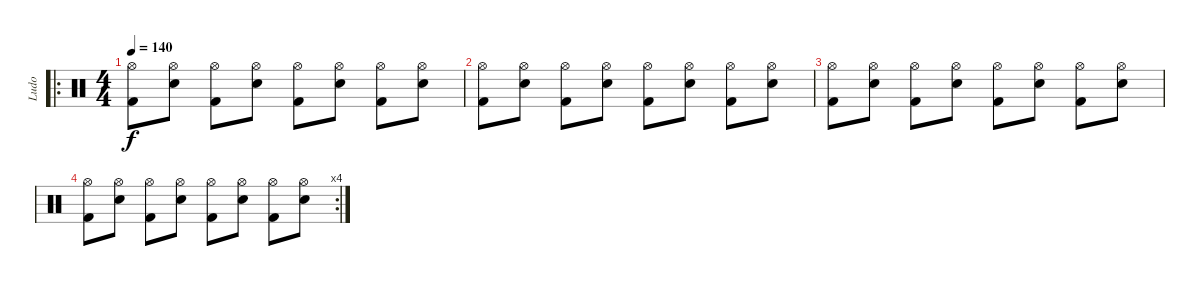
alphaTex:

\track ("Ludo" "Ludo") {instrument percussion}
\staff {score}
\articulation defaults
\ro
\ts (4 4)
\tempo 140
\clef neutral
\ks c
("Hi-Hat (open)" "Kick (hit) 2").8{dy f} ("Hi-Hat (open)" "Electric Snare (hit)").8 ("Hi-Hat (open)" "Kick (hit) 2").8 ("Hi-Hat (open)" "Electric Snare (hit)").8 ("Hi-Hat (open)" "Kick (hit) 2").8 ("Hi-Hat (open)" "Electric Snare (hit)").8 ("Hi-Hat (open)" "Kick (hit) 2").8 ("Hi-Hat (open)" "Electric Snare (hit)").8 |
("Hi-Hat (open)" "Kick (hit) 2").8 ("Hi-Hat (open)" "Electric Snare (hit)").8 ("Hi-Hat (open)" "Kick (hit) 2").8 ("Hi-Hat (open)" "Electric Snare (hit)").8 ("Hi-Hat (open)" "Kick (hit) 2").8 ("Hi-Hat (open)" "Electric Snare (hit)").8 ("Hi-Hat (open)" "Kick (hit) 2").8 ("Hi-Hat (open)" "Electric Snare (hit)").8 |
("Hi-Hat (open)" "Kick (hit) 2").8 ("Hi-Hat (open)" "Electric Snare (hit)").8 ("Hi-Hat (open)" "Kick (hit) 2").8 ("Hi-Hat (open)" "Electric Snare (hit)").8 ("Hi-Hat (open)" "Kick (hit) 2").8 ("Hi-Hat (open)" "Electric Snare (hit)").8 ("Hi-Hat (open)" "Kick (hit) 2").8 ("Hi-Hat (open)" "Electric Snare (hit)").8 |
\rc 4
("Hi-Hat (open)" "Kick (hit) 2").8 ("Hi-Hat (open)" "Electric Snare (hit)").8 ("Hi-Hat (open)" "Kick (hit) 2").8 ("Hi-Hat (open)" "Electric Snare (hit)").8 ("Hi-Hat (open)" "Kick (hit) 2").8 ("Hi-Hat (open)" "Electric Snare (hit)").8 ("Hi-Hat (open)" "Kick (hit) 2").8 ("Hi-Hat (open)" "Electric Snare (hit)").8
